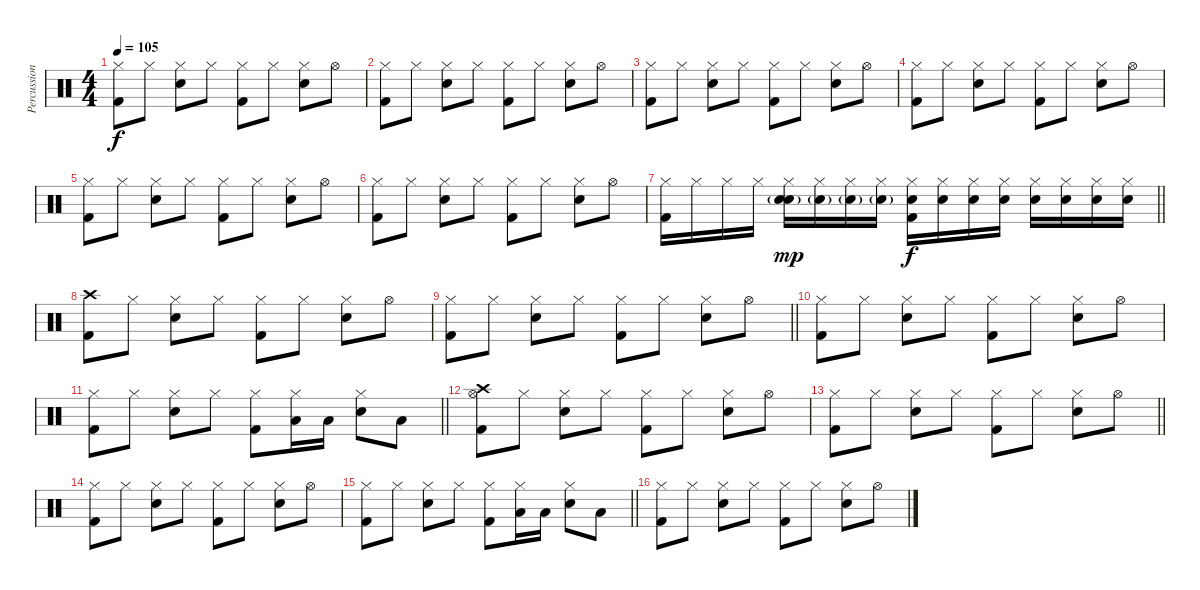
\track ("Percussion" "Percussion") {instrument percussion}
\staff {score}
\articulation defaults
\ts (4 4)
\tempo 105
\clef neutral
\ks c
("Kick (hit) 2" "Hi-Hat (closed)").8{dy f} "Hi-Hat (closed)".8 ("Snare (hit) 2" "Hi-Hat (closed)").8 "Hi-Hat (closed)".8 ("Kick (hit) 2" "Hi-Hat (closed)").8 "Hi-Hat (closed)".8 ("Snare (hit) 2" "Hi-Hat (closed)").8 "Hi-Hat (open)".8 |
("Kick (hit) 2" "Hi-Hat (closed)").8 "Hi-Hat (closed)".8 ("Snare (hit) 2" "Hi-Hat (closed)").8 "Hi-Hat (closed)".8 ("Kick (hit) 2" "Hi-Hat (closed)").8 "Hi-Hat (closed)".8 ("Snare (hit) 2" "Hi-Hat (closed)").8 "Hi-Hat (open)".8 |
("Kick (hit) 2" "Hi-Hat (closed)").8 "Hi-Hat (closed)".8 ("Snare (hit) 2" "Hi-Hat (closed)").8 "Hi-Hat (closed)".8 ("Kick (hit) 2" "Hi-Hat (closed)").8 "Hi-Hat (closed)".8 ("Snare (hit) 2" "Hi-Hat (closed)").8 "Hi-Hat (open)".8 |
("Kick (hit) 2" "Hi-Hat (closed)").8 "Hi-Hat (closed)".8 ("Snare (hit) 2" "Hi-Hat (closed)").8 "Hi-Hat (closed)".8 ("Kick (hit) 2" "Hi-Hat (closed)").8 "Hi-Hat (closed)".8 ("Snare (hit) 2" "Hi-Hat (closed)").8 "Hi-Hat (open)".8 |
("Kick (hit) 2" "Hi-Hat (closed)").8 "Hi-Hat (closed)".8 ("Snare (hit) 2" "Hi-Hat (closed)").8 "Hi-Hat (closed)".8 ("Kick (hit) 2" "Hi-Hat (closed)").8 "Hi-Hat (closed)".8 ("Snare (hit) 2" "Hi-Hat (closed)").8 "Hi-Hat (open)".8 |
("Kick (hit) 2" "Hi-Hat (closed)").8 "Hi-Hat (closed)".8 ("Snare (hit) 2" "Hi-Hat (closed)").8 "Hi-Hat (closed)".8 ("Kick (hit) 2" "Hi-Hat (closed)").8 "Hi-Hat (closed)".8 ("Snare (hit) 2" "Hi-Hat (closed)").8 "Hi-Hat (open)".8 |
\barLineRight lightlight
("Hi-Hat (closed)" "Kick (hit) 2").16 "Hi-Hat (closed)".16 "Hi-Hat (closed)".16 "Hi-Hat (closed)".16 ("Snare (hit) 2"{g} "Hi-Hat (closed)" "Snare (hit) 2").16{dy mp} ("Snare (hit) 2"{g} "Hi-Hat (closed)").16 ("Snare (hit) 2"{g} "Hi-Hat (closed)").16 ("Snare (hit) 2"{g} "Hi-Hat (closed)").16 ("Snare (hit) 2" "Hi-Hat (closed)" "Kick (hit) 2").16{dy f} ("Snare (hit) 2" "Hi-Hat (closed)").16 ("Snare (hit) 2" "Hi-Hat (closed)").16 ("Snare (hit) 2" "Hi-Hat (closed)").16 ("Snare (hit) 2" "Hi-Hat (closed)").16 ("Snare (hit) 2" "Hi-Hat (closed)").16 ("Snare (hit) 2" "Hi-Hat (closed)").16 ("Snare (hit) 2" "Hi-Hat (closed)").16 |
("Kick (hit) 2" "Crash high (hit)").8 "Hi-Hat (closed)".8 ("Snare (hit) 2" "Hi-Hat (closed)").8 "Hi-Hat (closed)".8 ("Kick (hit) 2" "Hi-Hat (closed)").8 "Hi-Hat (closed)".8 ("Snare (hit) 2" "Hi-Hat (closed)").8 "Hi-Hat (open)".8 |
\barLineRight lightlight
("Kick (hit) 2" "Hi-Hat (closed)").8 "Hi-Hat (closed)".8 ("Snare (hit) 2" "Hi-Hat (closed)").8 "Hi-Hat (closed)".8 ("Kick (hit) 2" "Hi-Hat (closed)").8 "Hi-Hat (closed)".8 ("Snare (hit) 2" "Hi-Hat (closed)").8 "Hi-Hat (open)".8 |
("Kick (hit) 2" "Hi-Hat (closed)").8 "Hi-Hat (closed)".8 ("Snare (hit) 2" "Hi-Hat (closed)").8 "Hi-Hat (closed)".8 ("Kick (hit) 2" "Hi-Hat (closed)").8 "Hi-Hat (closed)".8 ("Snare (hit) 2" "Hi-Hat (closed)").8 "Hi-Hat (open)".8 |
\barLineRight lightlight
("Kick (hit) 2" "Hi-Hat (closed)").8 "Hi-Hat (closed)".8 ("Snare (hit) 2" "Hi-Hat (closed)").8 "Hi-Hat (closed)".8 ("Kick (hit) 2" "Hi-Hat (closed)").8 ("Low Tom (hit)" "Hi-Hat (closed)").16 "Low Tom (hit)".16 ("Snare (hit) 2" "Hi-Hat (closed)").8 "Low Tom (hit)".8 |
("Hi-Hat (open)" "Kick (hit) 2" "Crash high (hit)").8 "Hi-Hat (closed)".8 ("Snare (hit) 2" "Hi-Hat (closed)").8 "Hi-Hat (closed)".8 ("Kick (hit) 2" "Hi-Hat (closed)").8 "Hi-Hat (closed)".8 ("Snare (hit) 2" "Hi-Hat (closed)").8 "Hi-Hat (open)".8 |
\barLineRight lightlight
("Kick (hit) 2" "Hi-Hat (closed)").8 "Hi-Hat (closed)".8 ("Snare (hit) 2" "Hi-Hat (closed)").8 "Hi-Hat (closed)".8 ("Kick (hit) 2" "Hi-Hat (closed)").8 "Hi-Hat (closed)".8 ("Snare (hit) 2" "Hi-Hat (closed)").8 "Hi-Hat (open)".8 |
("Kick (hit) 2" "Hi-Hat (closed)").8 "Hi-Hat (closed)".8 ("Snare (hit) 2" "Hi-Hat (closed)").8 "Hi-Hat (closed)".8 ("Kick (hit) 2" "Hi-Hat (closed)").8 "Hi-Hat (closed)".8 ("Snare (hit) 2" "Hi-Hat (closed)").8 "Hi-Hat (open)".8 |
\barLineRight lightlight
("Kick (hit) 2" "Hi-Hat (closed)").8 "Hi-Hat (closed)".8 ("Snare (hit) 2" "Hi-Hat (closed)").8 "Hi-Hat (closed)".8 ("Kick (hit) 2" "Hi-Hat (closed)").8 ("Low Tom (hit)" "Hi-Hat (closed)").16 "Low Tom (hit)".16 ("Snare (hit) 2" "Hi-Hat (closed)").8 "Low Tom (hit)".8 |
("Kick (hit) 2" "Hi-Hat (closed)").8 "Hi-Hat (closed)".8 ("Snare (hit) 2" "Hi-Hat (closed)").8 "Hi-Hat (closed)".8 ("Kick (hit) 2" "Hi-Hat (closed)").8 "Hi-Hat (closed)".8 ("Snare (hit) 2" "Hi-Hat (closed)").8 "Hi-Hat (open)".8
